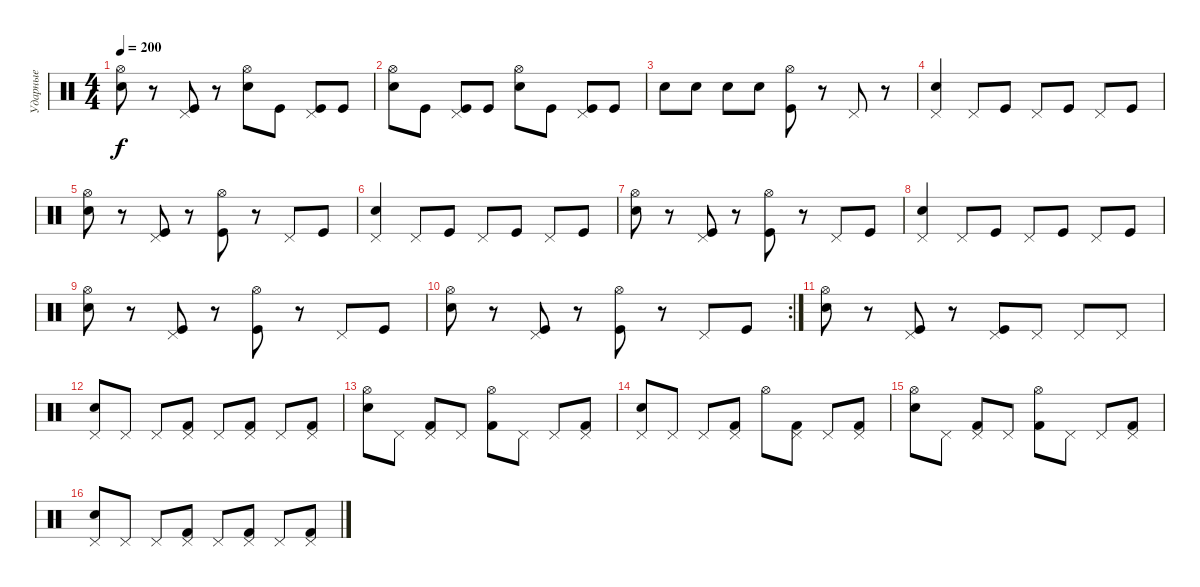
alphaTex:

\track ("Ударные" "Ударные") {instrument percussion}
\staff {score}
\articulation defaults
\ts (4 4)
\tempo 200
\clef neutral
\ks c
("Hi-Hat (open)" "Electric Snare (hit)").8{dy f} r.8 ("Pedal Hi-Hat (hit)" "Kick (hit)").8 r.8 ("Hi-Hat (open)" "Electric Snare (hit)").8 "Kick (hit)".8 ("Pedal Hi-Hat (hit)" "Kick (hit)").8 "Kick (hit)".8 |
("Hi-Hat (open)" "Electric Snare (hit)").8 "Kick (hit)".8 ("Pedal Hi-Hat (hit)" "Kick (hit)").8 "Kick (hit)".8 ("Hi-Hat (open)" "Electric Snare (hit)").8 "Kick (hit)".8 ("Pedal Hi-Hat (hit)" "Kick (hit)").8 "Kick (hit)".8 |
"Electric Snare (hit)".8 "Electric Snare (hit)".8 "Electric Snare (hit)".8 "Electric Snare (hit)".8 ("Hi-Hat (open)" "Kick (hit)").8 r.8 "Pedal Hi-Hat (hit)".8 r.8 |
("Pedal Hi-Hat (hit)" "Electric Snare (hit)").4 "Pedal Hi-Hat (hit)".8 "Kick (hit)".8 "Pedal Hi-Hat (hit)".8 "Kick (hit)".8 "Pedal Hi-Hat (hit)".8 "Kick (hit)".8 |
("Hi-Hat (open)" "Electric Snare (hit)").8 r.8 ("Pedal Hi-Hat (hit)" "Kick (hit)").8 r.8 ("Hi-Hat (open)" "Kick (hit)").8 r.8 "Pedal Hi-Hat (hit)".8 "Kick (hit)".8 |
("Pedal Hi-Hat (hit)" "Electric Snare (hit)").4 "Pedal Hi-Hat (hit)".8 "Kick (hit)".8 "Pedal Hi-Hat (hit)".8 "Kick (hit)".8 "Pedal Hi-Hat (hit)".8 "Kick (hit)".8 |
("Hi-Hat (open)" "Electric Snare (hit)").8 r.8 ("Pedal Hi-Hat (hit)" "Kick (hit)").8 r.8 ("Hi-Hat (open)" "Kick (hit)").8 r.8 "Pedal Hi-Hat (hit)".8 "Kick (hit)".8 |
("Pedal Hi-Hat (hit)" "Electric Snare (hit)").4 "Pedal Hi-Hat (hit)".8 "Kick (hit)".8 "Pedal Hi-Hat (hit)".8 "Kick (hit)".8 "Pedal Hi-Hat (hit)".8 "Kick (hit)".8 |
("Hi-Hat (open)" "Electric Snare (hit)").8 r.8 ("Pedal Hi-Hat (hit)" "Kick (hit)").8 r.8 ("Hi-Hat (open)" "Kick (hit)").8 r.8 "Pedal Hi-Hat (hit)".8 "Kick (hit)".8 |
\rc 2
("Hi-Hat (open)" "Electric Snare (hit)").8 r.8 ("Pedal Hi-Hat (hit)" "Kick (hit)").8 r.8 ("Hi-Hat (open)" "Kick (hit)").8 r.8 "Pedal Hi-Hat (hit)".8 "Kick (hit)".8 |
("Hi-Hat (open)" "Electric Snare (hit)").8 r.8 ("Pedal Hi-Hat (hit)" "Kick (hit)").8 r.8 ("Pedal Hi-Hat (hit)" "Kick (hit)").8 "Pedal Hi-Hat (hit)".8 "Pedal Hi-Hat (hit)".8 "Pedal Hi-Hat (hit)".8 |
("Pedal Hi-Hat (hit)" "Electric Snare (hit)").8 "Pedal Hi-Hat (hit)".8 "Pedal Hi-Hat (hit)".8 ("Pedal Hi-Hat (hit)" "Kick (hit) 2").8 "Pedal Hi-Hat (hit)".8 ("Pedal Hi-Hat (hit)" "Kick (hit) 2").8 "Pedal Hi-Hat (hit)".8 ("Pedal Hi-Hat (hit)" "Kick (hit) 2").8 |
("Hi-Hat (open)" "Electric Snare (hit)").8 "Pedal Hi-Hat (hit)".8 ("Pedal Hi-Hat (hit)" "Kick (hit) 2").8 "Pedal Hi-Hat (hit)".8 ("Hi-Hat (open)" "Kick (hit) 2").8 "Pedal Hi-Hat (hit)".8 "Pedal Hi-Hat (hit)".8 ("Pedal Hi-Hat (hit)" "Kick (hit) 2").8 |
("Pedal Hi-Hat (hit)" "Electric Snare (hit)").8 "Pedal Hi-Hat (hit)".8 "Pedal Hi-Hat (hit)".8 ("Pedal Hi-Hat (hit)" "Kick (hit) 2").8 "Hi-Hat (open)".8 ("Pedal Hi-Hat (hit)" "Kick (hit) 2").8 "Pedal Hi-Hat (hit)".8 ("Pedal Hi-Hat (hit)" "Kick (hit) 2").8 |
("Hi-Hat (open)" "Electric Snare (hit)").8 "Pedal Hi-Hat (hit)".8 ("Pedal Hi-Hat (hit)" "Kick (hit) 2").8 "Pedal Hi-Hat (hit)".8 ("Hi-Hat (open)" "Kick (hit) 2").8 "Pedal Hi-Hat (hit)".8 "Pedal Hi-Hat (hit)".8 ("Pedal Hi-Hat (hit)" "Kick (hit) 2").8 |
("Pedal Hi-Hat (hit)" "Electric Snare (hit)").8 "Pedal Hi-Hat (hit)".8 "Pedal Hi-Hat (hit)".8 ("Pedal Hi-Hat (hit)" "Kick (hit) 2").8 "Pedal Hi-Hat (hit)".8 ("Pedal Hi-Hat (hit)" "Kick (hit) 2").8 "Pedal Hi-Hat (hit)".8 ("Pedal Hi-Hat (hit)" "Kick (hit) 2").8
